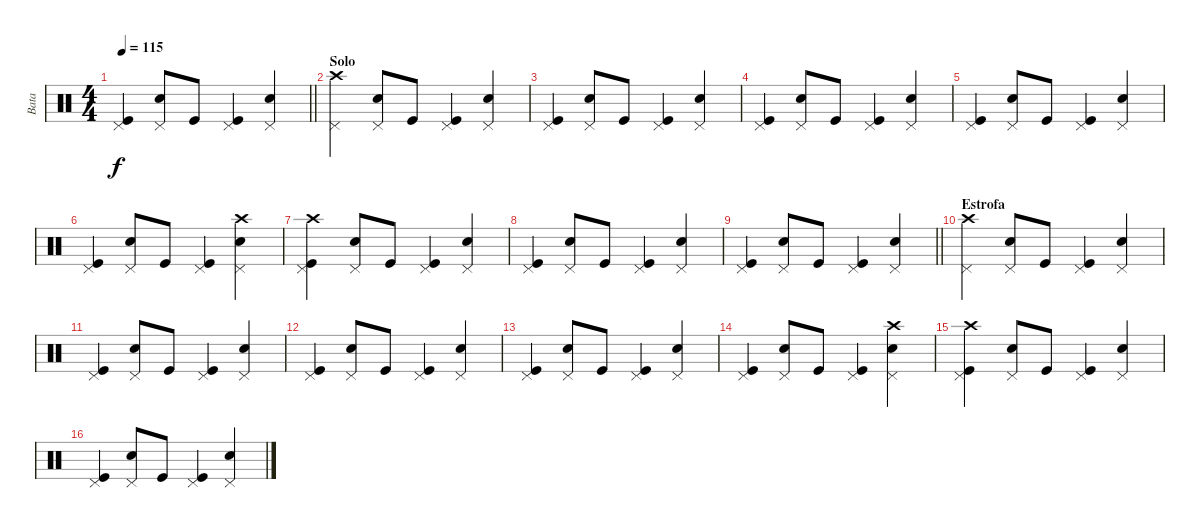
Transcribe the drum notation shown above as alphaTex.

\track ("Bata" "Bata") {instrument percussion}
\staff {score}
\articulation defaults
\ts (4 4)
\tempo 115
\clef neutral
\barLineRight lightlight
\ks c
("Kick (hit)" "Pedal Hi-Hat (hit)").4{dy f} ("Snare (hit) 2" "Pedal Hi-Hat (hit)").8 "Kick (hit)".8 ("Kick (hit)" "Pedal Hi-Hat (hit)").4 ("Snare (hit) 2" "Pedal Hi-Hat (hit)").4 |
\section ("" "Solo")
("Crash high (hit)" "Pedal Hi-Hat (hit)").4 ("Snare (hit) 2" "Pedal Hi-Hat (hit)").8 "Kick (hit)".8 ("Kick (hit)" "Pedal Hi-Hat (hit)").4 ("Snare (hit) 2" "Pedal Hi-Hat (hit)").4 |
("Kick (hit)" "Pedal Hi-Hat (hit)").4 ("Snare (hit) 2" "Pedal Hi-Hat (hit)").8 "Kick (hit)".8 ("Kick (hit)" "Pedal Hi-Hat (hit)").4 ("Snare (hit) 2" "Pedal Hi-Hat (hit)").4 |
("Kick (hit)" "Pedal Hi-Hat (hit)").4 ("Snare (hit) 2" "Pedal Hi-Hat (hit)").8 "Kick (hit)".8 ("Kick (hit)" "Pedal Hi-Hat (hit)").4 ("Snare (hit) 2" "Pedal Hi-Hat (hit)").4 |
("Kick (hit)" "Pedal Hi-Hat (hit)").4 ("Snare (hit) 2" "Pedal Hi-Hat (hit)").8 "Kick (hit)".8 ("Kick (hit)" "Pedal Hi-Hat (hit)").4 ("Snare (hit) 2" "Pedal Hi-Hat (hit)").4 |
("Kick (hit)" "Pedal Hi-Hat (hit)").4 ("Snare (hit) 2" "Pedal Hi-Hat (hit)").8 "Kick (hit)".8 ("Kick (hit)" "Pedal Hi-Hat (hit)").4 ("Snare (hit) 2" "Crash high (hit)" "Pedal Hi-Hat (hit)").4 |
("Kick (hit)" "Crash high (hit)" "Pedal Hi-Hat (hit)").4 ("Snare (hit) 2" "Pedal Hi-Hat (hit)").8 "Kick (hit)".8 ("Kick (hit)" "Pedal Hi-Hat (hit)").4 ("Snare (hit) 2" "Pedal Hi-Hat (hit)").4 |
("Kick (hit)" "Pedal Hi-Hat (hit)").4 ("Snare (hit) 2" "Pedal Hi-Hat (hit)").8 "Kick (hit)".8 ("Kick (hit)" "Pedal Hi-Hat (hit)").4 ("Snare (hit) 2" "Pedal Hi-Hat (hit)").4 |
\barLineRight lightlight
("Kick (hit)" "Pedal Hi-Hat (hit)").4 ("Snare (hit) 2" "Pedal Hi-Hat (hit)").8 "Kick (hit)".8 ("Kick (hit)" "Pedal Hi-Hat (hit)").4 ("Snare (hit) 2" "Pedal Hi-Hat (hit)").4 |
\section ("" "Estrofa")
("Crash high (hit)" "Pedal Hi-Hat (hit)").4 ("Snare (hit) 2" "Pedal Hi-Hat (hit)").8 "Kick (hit)".8 ("Kick (hit)" "Pedal Hi-Hat (hit)").4 ("Snare (hit) 2" "Pedal Hi-Hat (hit)").4 |
("Kick (hit)" "Pedal Hi-Hat (hit)").4 ("Snare (hit) 2" "Pedal Hi-Hat (hit)").8 "Kick (hit)".8 ("Kick (hit)" "Pedal Hi-Hat (hit)").4 ("Snare (hit) 2" "Pedal Hi-Hat (hit)").4 |
("Kick (hit)" "Pedal Hi-Hat (hit)").4 ("Snare (hit) 2" "Pedal Hi-Hat (hit)").8 "Kick (hit)".8 ("Kick (hit)" "Pedal Hi-Hat (hit)").4 ("Snare (hit) 2" "Pedal Hi-Hat (hit)").4 |
("Kick (hit)" "Pedal Hi-Hat (hit)").4 ("Snare (hit) 2" "Pedal Hi-Hat (hit)").8 "Kick (hit)".8 ("Kick (hit)" "Pedal Hi-Hat (hit)").4 ("Snare (hit) 2" "Pedal Hi-Hat (hit)").4 |
("Kick (hit)" "Pedal Hi-Hat (hit)").4 ("Snare (hit) 2" "Pedal Hi-Hat (hit)").8 "Kick (hit)".8 ("Kick (hit)" "Pedal Hi-Hat (hit)").4 ("Snare (hit) 2" "Crash high (hit)" "Pedal Hi-Hat (hit)").4 |
("Kick (hit)" "Crash high (hit)" "Pedal Hi-Hat (hit)").4 ("Snare (hit) 2" "Pedal Hi-Hat (hit)").8 "Kick (hit)".8 ("Kick (hit)" "Pedal Hi-Hat (hit)").4 ("Snare (hit) 2" "Pedal Hi-Hat (hit)").4 |
("Kick (hit)" "Pedal Hi-Hat (hit)").4 ("Snare (hit) 2" "Pedal Hi-Hat (hit)").8 "Kick (hit)".8 ("Kick (hit)" "Pedal Hi-Hat (hit)").4 ("Snare (hit) 2" "Pedal Hi-Hat (hit)").4
